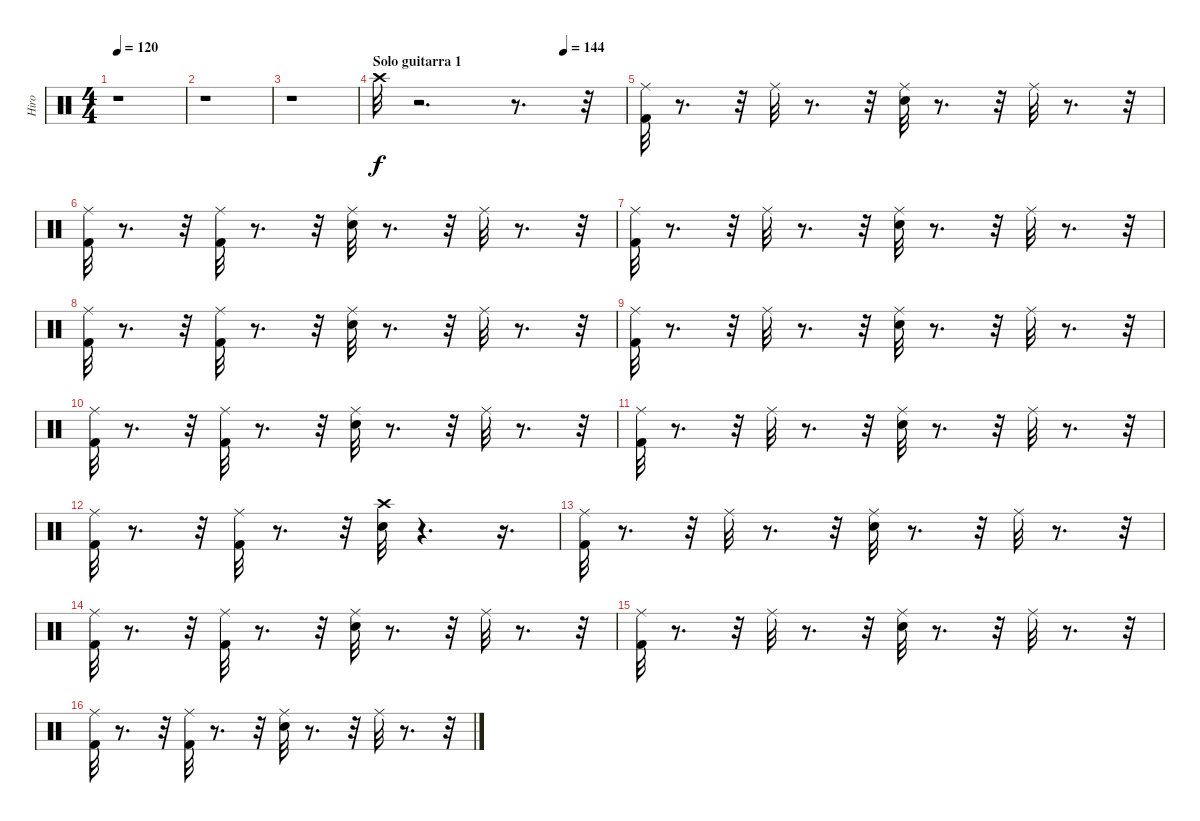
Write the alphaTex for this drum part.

\track ("Hiro" "Hiro") {instrument percussion}
\staff {score}
\articulation defaults
\ts (4 4)
\tempo 120
\clef neutral
\ks c
r.1{dy f} |
r.1 |
r.1 |
\section ("" "Solo guitarra 1")
\tempo (144 0.75)
"Crash high (hit)".32 r.2{d} r.8{d} r.32 |
("Kick (hit) 2" "Ride (middle)").32 r.8{d} r.32 "Ride (middle)".32 r.8{d} r.32 ("Snare (hit) 2" "Ride (middle)").32 r.8{d} r.32 "Ride (middle)".32 r.8{d} r.32 |
("Kick (hit) 2" "Ride (middle)").32 r.8{d} r.32 ("Kick (hit) 2" "Ride (middle)").32 r.8{d} r.32 ("Snare (hit) 2" "Ride (middle)").32 r.8{d} r.32 "Ride (middle)".32 r.8{d} r.32 |
("Kick (hit) 2" "Ride (middle)").32 r.8{d} r.32 "Ride (middle)".32 r.8{d} r.32 ("Snare (hit) 2" "Ride (middle)").32 r.8{d} r.32 "Ride (middle)".32 r.8{d} r.32 |
("Kick (hit) 2" "Ride (middle)").32 r.8{d} r.32 ("Kick (hit) 2" "Ride (middle)").32 r.8{d} r.32 ("Snare (hit) 2" "Ride (middle)").32 r.8{d} r.32 "Ride (middle)".32 r.8{d} r.32 |
("Kick (hit) 2" "Ride (middle)").32 r.8{d} r.32 "Ride (middle)".32 r.8{d} r.32 ("Snare (hit) 2" "Ride (middle)").32 r.8{d} r.32 "Ride (middle)".32 r.8{d} r.32 |
("Kick (hit) 2" "Ride (middle)").32 r.8{d} r.32 ("Kick (hit) 2" "Ride (middle)").32 r.8{d} r.32 ("Snare (hit) 2" "Ride (middle)").32 r.8{d} r.32 "Ride (middle)".32 r.8{d} r.32 |
("Kick (hit) 2" "Ride (middle)").32 r.8{d} r.32 "Ride (middle)".32 r.8{d} r.32 ("Snare (hit) 2" "Ride (middle)").32 r.8{d} r.32 "Ride (middle)".32 r.8{d} r.32 |
("Kick (hit) 2" "Ride (middle)").32 r.8{d} r.32 ("Kick (hit) 2" "Ride (middle)").32 r.8{d} r.32 ("Crash high (hit)" "Snare (hit) 2").32 r.4{d} r.16{d} |
("Kick (hit) 2" "Ride (middle)").32 r.8{d} r.32 "Ride (middle)".32 r.8{d} r.32 ("Snare (hit) 2" "Ride (middle)").32 r.8{d} r.32 "Ride (middle)".32 r.8{d} r.32 |
("Kick (hit) 2" "Ride (middle)").32 r.8{d} r.32 ("Kick (hit) 2" "Ride (middle)").32 r.8{d} r.32 ("Snare (hit) 2" "Ride (middle)").32 r.8{d} r.32 "Ride (middle)".32 r.8{d} r.32 |
("Kick (hit) 2" "Ride (middle)").32 r.8{d} r.32 "Ride (middle)".32 r.8{d} r.32 ("Snare (hit) 2" "Ride (middle)").32 r.8{d} r.32 "Ride (middle)".32 r.8{d} r.32 |
("Kick (hit) 2" "Ride (middle)").32 r.8{d} r.32 ("Kick (hit) 2" "Ride (middle)").32 r.8{d} r.32 ("Snare (hit) 2" "Ride (middle)").32 r.8{d} r.32 "Ride (middle)".32 r.8{d} r.32
